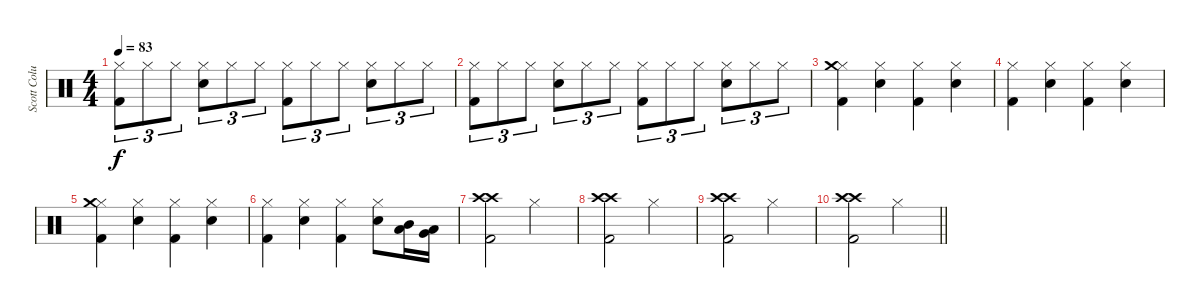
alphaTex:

\track ("Scott Columbus" "Scott Colu") {instrument percussion}
\staff {score}
\articulation defaults
\ts (4 4)
\tempo 83
\clef neutral
\ks c
("Kick (hit) 2" "Hi-Hat (closed)").8{tu (3 2) dy f} "Hi-Hat (closed)".8{tu (3 2)} "Hi-Hat (closed)".8{tu (3 2)} ("Electric Snare (hit)" "Hi-Hat (closed)").8{tu (3 2)} "Hi-Hat (closed)".8{tu (3 2)} "Hi-Hat (closed)".8{tu (3 2)} ("Kick (hit) 2" "Hi-Hat (closed)").8{tu (3 2)} "Hi-Hat (closed)".8{tu (3 2)} "Hi-Hat (closed)".8{tu (3 2)} ("Electric Snare (hit)" "Hi-Hat (closed)").8{tu (3 2)} "Hi-Hat (closed)".8{tu (3 2)} "Hi-Hat (closed)".8{tu (3 2)} |
("Kick (hit) 2" "Hi-Hat (closed)").8{tu (3 2)} "Hi-Hat (closed)".8{tu (3 2)} "Hi-Hat (closed)".8{tu (3 2)} ("Electric Snare (hit)" "Hi-Hat (closed)").8{tu (3 2)} "Hi-Hat (closed)".8{tu (3 2)} "Hi-Hat (closed)".8{tu (3 2)} ("Kick (hit) 2" "Hi-Hat (closed)").8{tu (3 2)} "Hi-Hat (closed)".8{tu (3 2)} "Hi-Hat (closed)".8{tu (3 2)} ("Electric Snare (hit)" "Hi-Hat (closed)").8{tu (3 2)} "Hi-Hat (closed)".8{tu (3 2)} "Hi-Hat (closed)".8{tu (3 2)} |
("Kick (hit) 2" "Hi-Hat (closed)" "Crash medium (hit)").4 ("Electric Snare (hit)" "Hi-Hat (closed)").4 ("Kick (hit) 2" "Hi-Hat (closed)").4 ("Electric Snare (hit)" "Hi-Hat (closed)").4 |
("Kick (hit) 2" "Hi-Hat (closed)").4 ("Electric Snare (hit)" "Hi-Hat (closed)").4 ("Kick (hit) 2" "Hi-Hat (closed)").4 ("Electric Snare (hit)" "Hi-Hat (closed)").4 |
("Kick (hit) 2" "Hi-Hat (closed)" "Crash medium (hit)").4 ("Electric Snare (hit)" "Hi-Hat (closed)").4 ("Kick (hit) 2" "Hi-Hat (closed)").4 ("Electric Snare (hit)" "Hi-Hat (closed)").4 |
("Kick (hit) 2" "Hi-Hat (closed)").4 ("Electric Snare (hit)" "Hi-Hat (closed)").4 ("Kick (hit) 2" "Hi-Hat (closed)").4 ("Electric Snare (hit)" "Hi-Hat (closed)").8 ("Mid Tom (hit)" "Low Tom (hit)").16 ("Low Tom (hit)" "Very Low Tom (hit)").16 |
("Kick (hit) 2" "Crash high (hit)" "Crash high (hit)").2 "Hi-Hat (closed)".2 |
("Kick (hit) 2" "Crash high (hit)" "Crash high (hit)").2 "Hi-Hat (closed)".2 |
("Kick (hit) 2" "Crash high (hit)" "Crash high (hit)").2 "Hi-Hat (closed)".2 |
\barLineRight lightlight
("Kick (hit) 2" "Crash high (hit)" "Crash high (hit)").2 "Hi-Hat (closed)".2
